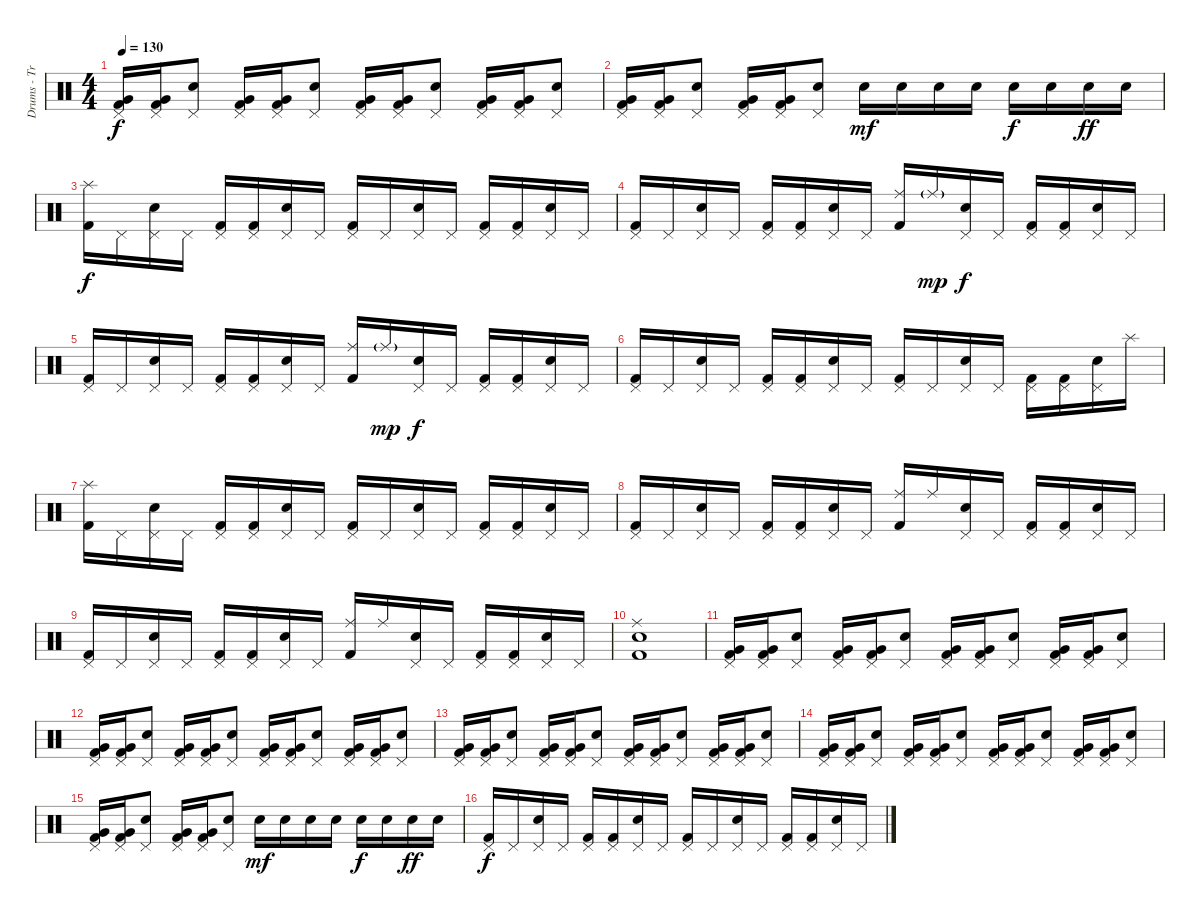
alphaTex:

\track ("Drums - Travis Barker" "Drums - Tr") {instrument percussion}
\staff {score}
\articulation defaults
\ts (4 4)
\tempo 130
\clef neutral
\ks c
("Pedal Hi-Hat (hit)" "Very Low Tom (hit)" "Kick (hit) 2").16{dy f} ("Pedal Hi-Hat (hit)" "Very Low Tom (hit)" "Kick (hit) 2").16 ("Pedal Hi-Hat (hit)" "Electric Snare (hit)").8 ("Pedal Hi-Hat (hit)" "Very Low Tom (hit)" "Kick (hit) 2").16 ("Pedal Hi-Hat (hit)" "Very Low Tom (hit)" "Kick (hit) 2").16 ("Pedal Hi-Hat (hit)" "Electric Snare (hit)").8 ("Pedal Hi-Hat (hit)" "Very Low Tom (hit)" "Kick (hit) 2").16 ("Pedal Hi-Hat (hit)" "Very Low Tom (hit)" "Kick (hit) 2").16 ("Pedal Hi-Hat (hit)" "Electric Snare (hit)").8 ("Pedal Hi-Hat (hit)" "Very Low Tom (hit)" "Kick (hit) 2").16 ("Pedal Hi-Hat (hit)" "Very Low Tom (hit)" "Kick (hit) 2").16 ("Pedal Hi-Hat (hit)" "Electric Snare (hit)").8 |
("Pedal Hi-Hat (hit)" "Very Low Tom (hit)" "Kick (hit) 2").16 ("Pedal Hi-Hat (hit)" "Very Low Tom (hit)" "Kick (hit) 2").16 ("Pedal Hi-Hat (hit)" "Electric Snare (hit)").8 ("Pedal Hi-Hat (hit)" "Very Low Tom (hit)" "Kick (hit) 2").16 ("Pedal Hi-Hat (hit)" "Very Low Tom (hit)" "Kick (hit) 2").16 ("Pedal Hi-Hat (hit)" "Electric Snare (hit)").8 "Electric Snare (hit)".16{dy mf} "Electric Snare (hit)".16 "Electric Snare (hit)".16 "Electric Snare (hit)".16 "Electric Snare (hit)".16{dy f} "Electric Snare (hit)".16 "Electric Snare (hit)".16{dy ff} "Electric Snare (hit)".16 |
("Splash (hit)" "Kick (hit) 2").16{dy f} "Pedal Hi-Hat (hit)".16 ("Pedal Hi-Hat (hit)" "Electric Snare (hit)").16 "Pedal Hi-Hat (hit)".16 ("Pedal Hi-Hat (hit)" "Kick (hit) 2").16 ("Pedal Hi-Hat (hit)" "Kick (hit) 2").16 ("Pedal Hi-Hat (hit)" "Electric Snare (hit)").16 "Pedal Hi-Hat (hit)".16 ("Pedal Hi-Hat (hit)" "Kick (hit) 2").16 "Pedal Hi-Hat (hit)".16 ("Pedal Hi-Hat (hit)" "Electric Snare (hit)").16 "Pedal Hi-Hat (hit)".16 ("Pedal Hi-Hat (hit)" "Kick (hit) 2").16 ("Pedal Hi-Hat (hit)" "Kick (hit) 2").16 ("Pedal Hi-Hat (hit)" "Electric Snare (hit)").16 "Pedal Hi-Hat (hit)".16 |
("Pedal Hi-Hat (hit)" "Kick (hit) 2").16 "Pedal Hi-Hat (hit)".16 ("Pedal Hi-Hat (hit)" "Electric Snare (hit)").16 "Pedal Hi-Hat (hit)".16 ("Pedal Hi-Hat (hit)" "Kick (hit) 2").16 ("Pedal Hi-Hat (hit)" "Kick (hit) 2").16 ("Pedal Hi-Hat (hit)" "Electric Snare (hit)").16 "Pedal Hi-Hat (hit)".16 ("Ride (middle)" "Kick (hit) 2").16 "Ride (middle)"{g}.16{dy mp} ("Pedal Hi-Hat (hit)" "Electric Snare (hit)").16{dy f} "Pedal Hi-Hat (hit)".16 ("Pedal Hi-Hat (hit)" "Kick (hit) 2").16 ("Pedal Hi-Hat (hit)" "Kick (hit) 2").16 ("Pedal Hi-Hat (hit)" "Electric Snare (hit)").16 "Pedal Hi-Hat (hit)".16 |
("Pedal Hi-Hat (hit)" "Kick (hit) 2").16 "Pedal Hi-Hat (hit)".16 ("Pedal Hi-Hat (hit)" "Electric Snare (hit)").16 "Pedal Hi-Hat (hit)".16 ("Pedal Hi-Hat (hit)" "Kick (hit) 2").16 ("Pedal Hi-Hat (hit)" "Kick (hit) 2").16 ("Pedal Hi-Hat (hit)" "Electric Snare (hit)").16 "Pedal Hi-Hat (hit)".16 ("Ride (middle)" "Kick (hit) 2").16 "Ride (middle)"{g}.16{dy mp} ("Pedal Hi-Hat (hit)" "Electric Snare (hit)").16{dy f} "Pedal Hi-Hat (hit)".16 ("Pedal Hi-Hat (hit)" "Kick (hit) 2").16 ("Pedal Hi-Hat (hit)" "Kick (hit) 2").16 ("Pedal Hi-Hat (hit)" "Electric Snare (hit)").16 "Pedal Hi-Hat (hit)".16 |
("Pedal Hi-Hat (hit)" "Kick (hit) 2").16 "Pedal Hi-Hat (hit)".16 ("Pedal Hi-Hat (hit)" "Electric Snare (hit)").16 "Pedal Hi-Hat (hit)".16 ("Pedal Hi-Hat (hit)" "Kick (hit) 2").16 ("Pedal Hi-Hat (hit)" "Kick (hit) 2").16 ("Pedal Hi-Hat (hit)" "Electric Snare (hit)").16 "Pedal Hi-Hat (hit)".16 ("Pedal Hi-Hat (hit)" "Kick (hit) 2").16 "Pedal Hi-Hat (hit)".16 ("Pedal Hi-Hat (hit)" "Electric Snare (hit)").16 "Pedal Hi-Hat (hit)".16 ("Pedal Hi-Hat (hit)" "Kick (hit) 2").16 ("Pedal Hi-Hat (hit)" "Kick (hit) 2").16 ("Pedal Hi-Hat (hit)" "Electric Snare (hit)").16 "Splash (hit)".16 |
("Splash (hit)" "Kick (hit) 2").16 "Pedal Hi-Hat (hit)".16 ("Pedal Hi-Hat (hit)" "Electric Snare (hit)").16 "Pedal Hi-Hat (hit)".16 ("Pedal Hi-Hat (hit)" "Kick (hit) 2").16 ("Pedal Hi-Hat (hit)" "Kick (hit) 2").16 ("Pedal Hi-Hat (hit)" "Electric Snare (hit)").16 "Pedal Hi-Hat (hit)".16 ("Pedal Hi-Hat (hit)" "Kick (hit) 2").16 "Pedal Hi-Hat (hit)".16 ("Pedal Hi-Hat (hit)" "Electric Snare (hit)").16 "Pedal Hi-Hat (hit)".16 ("Pedal Hi-Hat (hit)" "Kick (hit) 2").16 ("Pedal Hi-Hat (hit)" "Kick (hit) 2").16 ("Pedal Hi-Hat (hit)" "Electric Snare (hit)").16 "Pedal Hi-Hat (hit)".16 |
("Pedal Hi-Hat (hit)" "Kick (hit) 2").16 "Pedal Hi-Hat (hit)".16 ("Pedal Hi-Hat (hit)" "Electric Snare (hit)").16 "Pedal Hi-Hat (hit)".16 ("Pedal Hi-Hat (hit)" "Kick (hit) 2").16 ("Pedal Hi-Hat (hit)" "Kick (hit) 2").16 ("Pedal Hi-Hat (hit)" "Electric Snare (hit)").16 "Pedal Hi-Hat (hit)".16 ("Ride (middle)" "Kick (hit) 2").16 "Ride (middle)".16 ("Pedal Hi-Hat (hit)" "Electric Snare (hit)").16 "Pedal Hi-Hat (hit)".16 ("Pedal Hi-Hat (hit)" "Kick (hit) 2").16 ("Pedal Hi-Hat (hit)" "Kick (hit) 2").16 ("Pedal Hi-Hat (hit)" "Electric Snare (hit)").16 "Pedal Hi-Hat (hit)".16 |
("Pedal Hi-Hat (hit)" "Kick (hit) 2").16 "Pedal Hi-Hat (hit)".16 ("Pedal Hi-Hat (hit)" "Electric Snare (hit)").16 "Pedal Hi-Hat (hit)".16 ("Pedal Hi-Hat (hit)" "Kick (hit) 2").16 ("Pedal Hi-Hat (hit)" "Kick (hit) 2").16 ("Pedal Hi-Hat (hit)" "Electric Snare (hit)").16 "Pedal Hi-Hat (hit)".16 ("Ride (middle)" "Kick (hit) 2").16 "Ride (middle)".16 ("Pedal Hi-Hat (hit)" "Electric Snare (hit)").16 "Pedal Hi-Hat (hit)".16 ("Pedal Hi-Hat (hit)" "Kick (hit) 2").16 ("Pedal Hi-Hat (hit)" "Kick (hit) 2").16 ("Pedal Hi-Hat (hit)" "Electric Snare (hit)").16 "Pedal Hi-Hat (hit)".16 |
("Ride (middle)" "Electric Snare (hit)" "Kick (hit) 2").1 |
("Pedal Hi-Hat (hit)" "Very Low Tom (hit)" "Kick (hit) 2").16 ("Pedal Hi-Hat (hit)" "Very Low Tom (hit)" "Kick (hit) 2").16 ("Pedal Hi-Hat (hit)" "Electric Snare (hit)").8 ("Pedal Hi-Hat (hit)" "Very Low Tom (hit)" "Kick (hit) 2").16 ("Pedal Hi-Hat (hit)" "Very Low Tom (hit)" "Kick (hit) 2").16 ("Pedal Hi-Hat (hit)" "Electric Snare (hit)").8 ("Pedal Hi-Hat (hit)" "Very Low Tom (hit)" "Kick (hit) 2").16 ("Pedal Hi-Hat (hit)" "Very Low Tom (hit)" "Kick (hit) 2").16 ("Pedal Hi-Hat (hit)" "Electric Snare (hit)").8 ("Pedal Hi-Hat (hit)" "Very Low Tom (hit)" "Kick (hit) 2").16 ("Pedal Hi-Hat (hit)" "Very Low Tom (hit)" "Kick (hit) 2").16 ("Pedal Hi-Hat (hit)" "Electric Snare (hit)").8 |
("Pedal Hi-Hat (hit)" "Very Low Tom (hit)" "Kick (hit) 2").16 ("Pedal Hi-Hat (hit)" "Very Low Tom (hit)" "Kick (hit) 2").16 ("Pedal Hi-Hat (hit)" "Electric Snare (hit)").8 ("Pedal Hi-Hat (hit)" "Very Low Tom (hit)" "Kick (hit) 2").16 ("Pedal Hi-Hat (hit)" "Very Low Tom (hit)" "Kick (hit) 2").16 ("Pedal Hi-Hat (hit)" "Electric Snare (hit)").8 ("Pedal Hi-Hat (hit)" "Very Low Tom (hit)" "Kick (hit) 2").16 ("Pedal Hi-Hat (hit)" "Very Low Tom (hit)" "Kick (hit) 2").16 ("Pedal Hi-Hat (hit)" "Electric Snare (hit)").8 ("Pedal Hi-Hat (hit)" "Very Low Tom (hit)" "Kick (hit) 2").16 ("Pedal Hi-Hat (hit)" "Very Low Tom (hit)" "Kick (hit) 2").16 ("Pedal Hi-Hat (hit)" "Electric Snare (hit)").8 |
("Pedal Hi-Hat (hit)" "Very Low Tom (hit)" "Kick (hit) 2").16 ("Pedal Hi-Hat (hit)" "Very Low Tom (hit)" "Kick (hit) 2").16 ("Pedal Hi-Hat (hit)" "Electric Snare (hit)").8 ("Pedal Hi-Hat (hit)" "Very Low Tom (hit)" "Kick (hit) 2").16 ("Pedal Hi-Hat (hit)" "Very Low Tom (hit)" "Kick (hit) 2").16 ("Pedal Hi-Hat (hit)" "Electric Snare (hit)").8 ("Pedal Hi-Hat (hit)" "Very Low Tom (hit)" "Kick (hit) 2").16 ("Pedal Hi-Hat (hit)" "Very Low Tom (hit)" "Kick (hit) 2").16 ("Pedal Hi-Hat (hit)" "Electric Snare (hit)").8 ("Pedal Hi-Hat (hit)" "Very Low Tom (hit)" "Kick (hit) 2").16 ("Pedal Hi-Hat (hit)" "Very Low Tom (hit)" "Kick (hit) 2").16 ("Pedal Hi-Hat (hit)" "Electric Snare (hit)").8 |
("Pedal Hi-Hat (hit)" "Very Low Tom (hit)" "Kick (hit) 2").16 ("Pedal Hi-Hat (hit)" "Very Low Tom (hit)" "Kick (hit) 2").16 ("Pedal Hi-Hat (hit)" "Electric Snare (hit)").8 ("Pedal Hi-Hat (hit)" "Very Low Tom (hit)" "Kick (hit) 2").16 ("Pedal Hi-Hat (hit)" "Very Low Tom (hit)" "Kick (hit) 2").16 ("Pedal Hi-Hat (hit)" "Electric Snare (hit)").8 ("Pedal Hi-Hat (hit)" "Very Low Tom (hit)" "Kick (hit) 2").16 ("Pedal Hi-Hat (hit)" "Very Low Tom (hit)" "Kick (hit) 2").16 ("Pedal Hi-Hat (hit)" "Electric Snare (hit)").8 ("Pedal Hi-Hat (hit)" "Very Low Tom (hit)" "Kick (hit) 2").16 ("Pedal Hi-Hat (hit)" "Very Low Tom (hit)" "Kick (hit) 2").16 ("Pedal Hi-Hat (hit)" "Electric Snare (hit)").8 |
("Pedal Hi-Hat (hit)" "Very Low Tom (hit)" "Kick (hit) 2").16 ("Pedal Hi-Hat (hit)" "Very Low Tom (hit)" "Kick (hit) 2").16 ("Pedal Hi-Hat (hit)" "Electric Snare (hit)").8 ("Pedal Hi-Hat (hit)" "Very Low Tom (hit)" "Kick (hit) 2").16 ("Pedal Hi-Hat (hit)" "Very Low Tom (hit)" "Kick (hit) 2").16 ("Pedal Hi-Hat (hit)" "Electric Snare (hit)").8 "Electric Snare (hit)".16{dy mf} "Electric Snare (hit)".16 "Electric Snare (hit)".16 "Electric Snare (hit)".16 "Electric Snare (hit)".16{dy f} "Electric Snare (hit)".16 "Electric Snare (hit)".16{dy ff} "Electric Snare (hit)".16 |
("Pedal Hi-Hat (hit)" "Kick (hit) 2").16{dy f} "Pedal Hi-Hat (hit)".16 ("Pedal Hi-Hat (hit)" "Electric Snare (hit)").16 "Pedal Hi-Hat (hit)".16 ("Pedal Hi-Hat (hit)" "Kick (hit) 2").16 ("Pedal Hi-Hat (hit)" "Kick (hit) 2").16 ("Pedal Hi-Hat (hit)" "Electric Snare (hit)").16 "Pedal Hi-Hat (hit)".16 ("Pedal Hi-Hat (hit)" "Kick (hit) 2").16 "Pedal Hi-Hat (hit)".16 ("Pedal Hi-Hat (hit)" "Electric Snare (hit)").16 "Pedal Hi-Hat (hit)".16 ("Pedal Hi-Hat (hit)" "Kick (hit) 2").16 ("Pedal Hi-Hat (hit)" "Kick (hit) 2").16 ("Pedal Hi-Hat (hit)" "Electric Snare (hit)").16 "Pedal Hi-Hat (hit)".16
